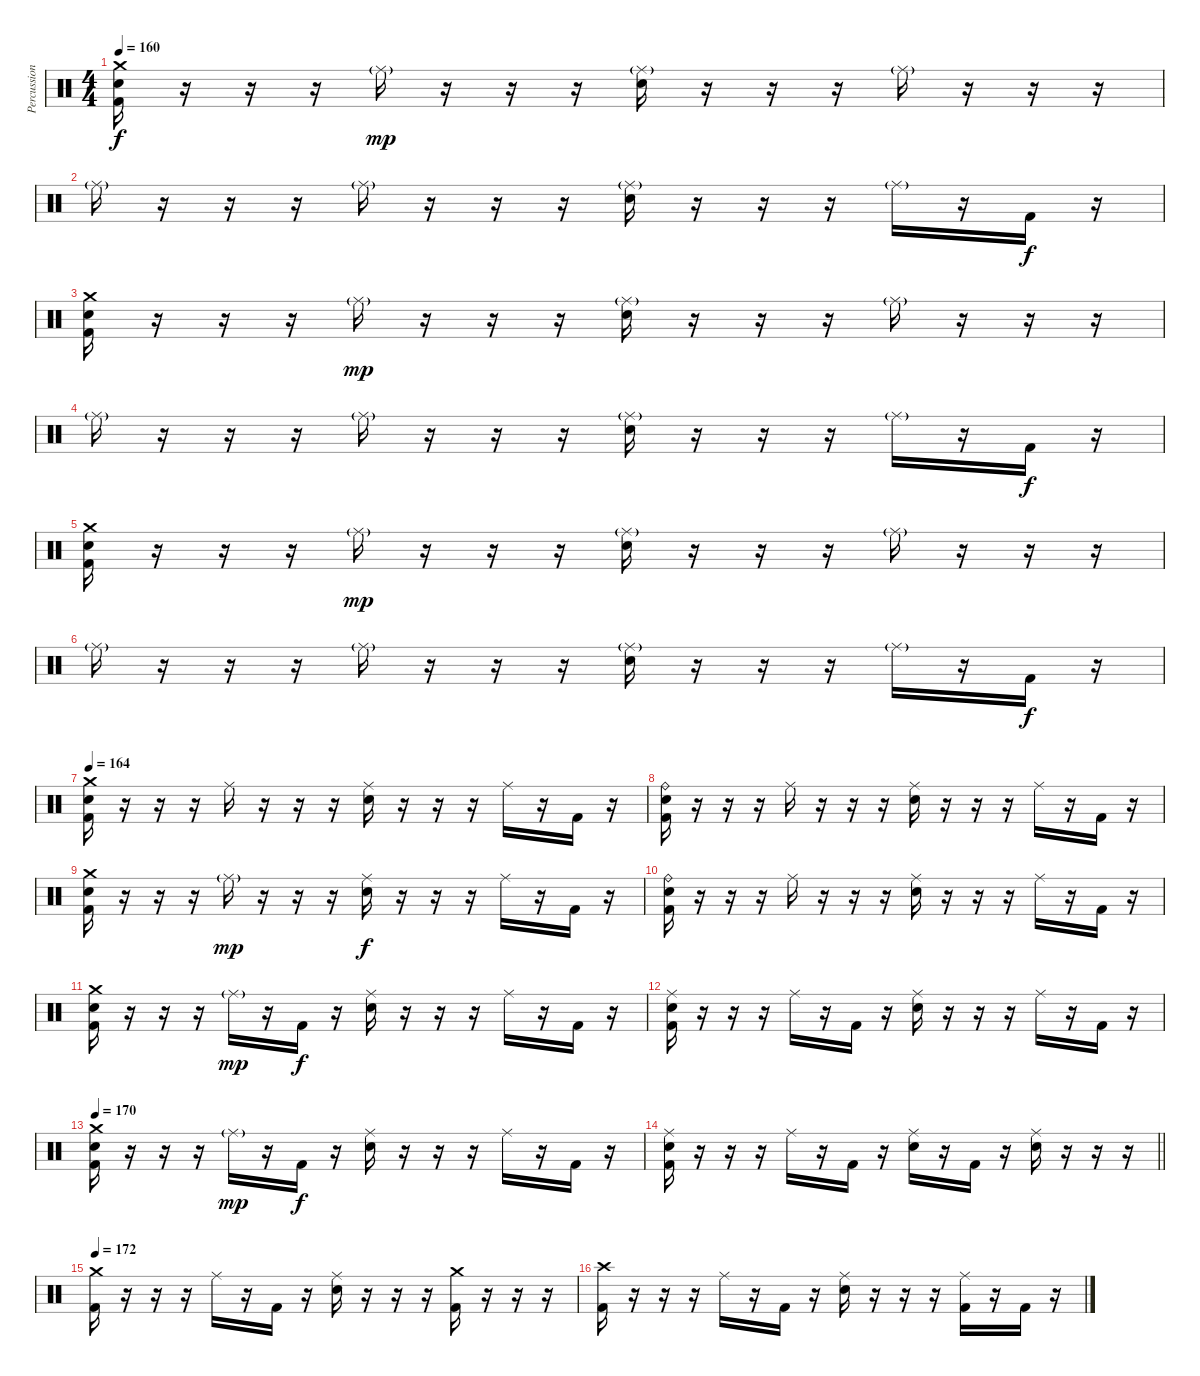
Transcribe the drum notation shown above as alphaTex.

\track ("Percussion" "Percussion") {instrument percussion}
\staff {score}
\articulation defaults
\ts (4 4)
\tempo 160
\clef neutral
\ks c
("Crash medium (hit)" "Electric Snare (hit)" "Kick (hit) 2").16{dy f} r.16 r.16 r.16 "Ride (middle)"{g}.16{dy mp} r.16 r.16 r.16 ("Ride (middle)"{g} "Electric Snare (hit)").16 r.16 r.16 r.16 "Ride (middle)"{g}.16 r.16 r.16 r.16 |
"Ride (middle)"{g}.16 r.16 r.16 r.16 "Ride (middle)"{g}.16 r.16 r.16 r.16 ("Ride (middle)"{g} "Electric Snare (hit)").16 r.16 r.16 r.16 "Ride (middle)"{g}.16 r.16 "Kick (hit) 2".16{dy f} r.16 |
("Crash medium (hit)" "Electric Snare (hit)" "Kick (hit) 2").16 r.16 r.16 r.16 "Ride (middle)"{g}.16{dy mp} r.16 r.16 r.16 ("Ride (middle)"{g} "Electric Snare (hit)").16 r.16 r.16 r.16 "Ride (middle)"{g}.16 r.16 r.16 r.16 |
"Ride (middle)"{g}.16 r.16 r.16 r.16 "Ride (middle)"{g}.16 r.16 r.16 r.16 ("Ride (middle)"{g} "Electric Snare (hit)").16 r.16 r.16 r.16 "Ride (middle)"{g}.16 r.16 "Kick (hit) 2".16{dy f} r.16 |
("Crash medium (hit)" "Electric Snare (hit)" "Kick (hit) 2").16 r.16 r.16 r.16 "Ride (middle)"{g}.16{dy mp} r.16 r.16 r.16 ("Ride (middle)"{g} "Electric Snare (hit)").16 r.16 r.16 r.16 "Ride (middle)"{g}.16 r.16 r.16 r.16 |
"Ride (middle)"{g}.16 r.16 r.16 r.16 "Ride (middle)"{g}.16 r.16 r.16 r.16 ("Ride (middle)"{g} "Electric Snare (hit)").16 r.16 r.16 r.16 "Ride (middle)"{g}.16 r.16 "Kick (hit) 2".16{dy f} r.16 |
\tempo 164
("Crash medium (hit)" "Electric Snare (hit)" "Kick (hit) 2").16 r.16 r.16 r.16 "Ride (middle)".16 r.16 r.16 r.16 ("Ride (middle)" "Electric Snare (hit)").16 r.16 r.16 r.16 "Ride (middle)".16 r.16 "Kick (hit) 2".16 r.16 |
("Ride (bell)" "Electric Snare (hit)" "Kick (hit) 2").16 r.16 r.16 r.16 "Ride (middle)".16 r.16 r.16 r.16 ("Ride (middle)" "Electric Snare (hit)").16 r.16 r.16 r.16 "Ride (middle)".16 r.16 "Kick (hit) 2".16 r.16 |
("Crash medium (hit)" "Electric Snare (hit)" "Kick (hit) 2").16 r.16 r.16 r.16 "Ride (middle)"{g}.16{dy mp} r.16 r.16 r.16 ("Ride (middle)" "Electric Snare (hit)").16{dy f} r.16 r.16 r.16 "Ride (middle)".16 r.16 "Kick (hit) 2".16 r.16 |
("Ride (bell)" "Electric Snare (hit)" "Kick (hit) 2").16 r.16 r.16 r.16 "Ride (middle)".16 r.16 r.16 r.16 ("Ride (middle)" "Electric Snare (hit)").16 r.16 r.16 r.16 "Ride (middle)".16 r.16 "Kick (hit) 2".16 r.16 |
("Crash medium (hit)" "Electric Snare (hit)" "Kick (hit) 2").16 r.16 r.16 r.16 "Ride (middle)"{g}.16{dy mp} r.16 "Kick (hit) 2".16{dy f} r.16 ("Ride (middle)" "Electric Snare (hit)").16 r.16 r.16 r.16 "Ride (middle)".16 r.16 "Kick (hit) 2".16 r.16 |
("Ride (middle)" "Electric Snare (hit)" "Kick (hit) 2").16 r.16 r.16 r.16 "Ride (middle)".16 r.16 "Kick (hit) 2".16 r.16 ("Ride (middle)" "Electric Snare (hit)").16 r.16 r.16 r.16 "Ride (middle)".16 r.16 "Kick (hit) 2".16 r.16 |
\tempo 170
("Crash medium (hit)" "Electric Snare (hit)" "Kick (hit) 2").16 r.16 r.16 r.16 "Ride (middle)"{g}.16{dy mp} r.16 "Kick (hit) 2".16{dy f} r.16 ("Ride (middle)" "Electric Snare (hit)").16 r.16 r.16 r.16 "Ride (middle)".16 r.16 "Kick (hit) 2".16 r.16 |
\barLineRight lightlight
("Ride (middle)" "Electric Snare (hit)" "Kick (hit) 2").16 r.16 r.16 r.16 "Ride (middle)".16 r.16 "Kick (hit) 2".16 r.16 ("Ride (middle)" "Electric Snare (hit)").16 r.16 "Kick (hit) 2".16 r.16 ("Ride (middle)" "Electric Snare (hit)").16 r.16 r.16 r.16 |
\section ("" "")
\tempo 172
("Crash medium (hit)" "Kick (hit) 2").16 r.16 r.16 r.16 "Ride (middle)".16 r.16 "Kick (hit) 2".16 r.16 ("Ride (middle)" "Electric Snare (hit)").16 r.16 r.16 r.16 ("Crash medium (hit)" "Kick (hit) 2").16 r.16 r.16 r.16 |
("Crash high (hit)" "Kick (hit) 2").16 r.16 r.16 r.16 "Ride (middle)".16 r.16 "Kick (hit) 2".16 r.16 ("Ride (middle)" "Electric Snare (hit)").16 r.16 r.16 r.16 ("Ride (middle)" "Kick (hit) 2").16 r.16 "Kick (hit) 2".16 r.16
